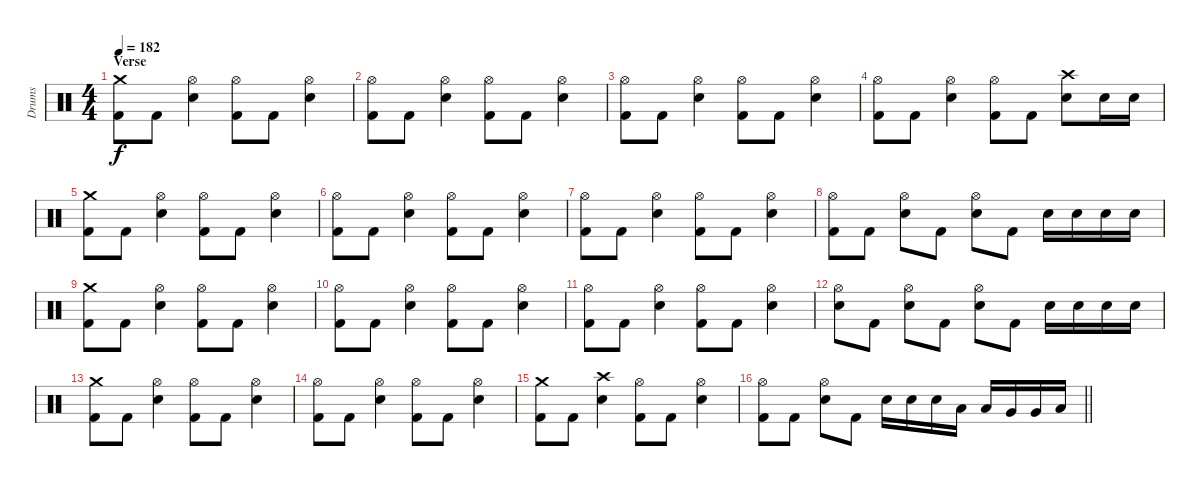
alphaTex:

\track ("Drums" "Drums") {instrument percussion}
\staff {score}
\articulation defaults
\ts (4 4)
\section ("" "Verse")
\tempo 182
\clef neutral
\ks c
("Crash medium (hit)" "Kick (hit) 2").8{dy f} "Kick (hit) 2".8 ("Hi-Hat (open)" "Electric Snare (hit)").4 ("Hi-Hat (open)" "Kick (hit) 2").8 "Kick (hit) 2".8 ("Hi-Hat (open)" "Electric Snare (hit)").4 |
("Hi-Hat (open)" "Kick (hit) 2").8 "Kick (hit) 2".8 ("Hi-Hat (open)" "Electric Snare (hit)").4 ("Hi-Hat (open)" "Kick (hit) 2").8 "Kick (hit) 2".8 ("Hi-Hat (open)" "Electric Snare (hit)").4 |
("Hi-Hat (open)" "Kick (hit) 2").8 "Kick (hit) 2".8 ("Hi-Hat (open)" "Electric Snare (hit)").4 ("Hi-Hat (open)" "Kick (hit) 2").8 "Kick (hit) 2".8 ("Hi-Hat (open)" "Electric Snare (hit)").4 |
("Hi-Hat (open)" "Kick (hit) 2").8 "Kick (hit) 2".8 ("Hi-Hat (open)" "Electric Snare (hit)").4 ("Hi-Hat (open)" "Kick (hit) 2").8 "Kick (hit) 2".8 ("Crash high (hit)" "Electric Snare (hit)").8 "Electric Snare (hit)".16 "Electric Snare (hit)".16 |
("Crash medium (hit)" "Kick (hit) 2").8 "Kick (hit) 2".8 ("Hi-Hat (open)" "Electric Snare (hit)").4 ("Hi-Hat (open)" "Kick (hit) 2").8 "Kick (hit) 2".8 ("Hi-Hat (open)" "Electric Snare (hit)").4 |
("Hi-Hat (open)" "Kick (hit) 2").8 "Kick (hit) 2".8 ("Hi-Hat (open)" "Electric Snare (hit)").4 ("Hi-Hat (open)" "Kick (hit) 2").8 "Kick (hit) 2".8 ("Hi-Hat (open)" "Electric Snare (hit)").4 |
("Hi-Hat (open)" "Kick (hit) 2").8 "Kick (hit) 2".8 ("Hi-Hat (open)" "Electric Snare (hit)").4 ("Hi-Hat (open)" "Kick (hit) 2").8 "Kick (hit) 2".8 ("Hi-Hat (open)" "Electric Snare (hit)").4 |
("Hi-Hat (open)" "Kick (hit) 2").8 "Kick (hit) 2".8 ("Hi-Hat (open)" "Electric Snare (hit)").8 "Kick (hit) 2".8 ("Hi-Hat (open)" "Electric Snare (hit)").8 "Kick (hit) 2".8 "Electric Snare (hit)".16 "Electric Snare (hit)".16 "Electric Snare (hit)".16 "Electric Snare (hit)".16 |
("Crash medium (hit)" "Kick (hit) 2").8 "Kick (hit) 2".8 ("Hi-Hat (open)" "Electric Snare (hit)").4 ("Hi-Hat (open)" "Kick (hit) 2").8 "Kick (hit) 2".8 ("Hi-Hat (open)" "Electric Snare (hit)").4 |
("Hi-Hat (open)" "Kick (hit) 2").8 "Kick (hit) 2".8 ("Hi-Hat (open)" "Electric Snare (hit)").4 ("Hi-Hat (open)" "Kick (hit) 2").8 "Kick (hit) 2".8 ("Hi-Hat (open)" "Electric Snare (hit)").4 |
("Hi-Hat (open)" "Kick (hit) 2").8 "Kick (hit) 2".8 ("Hi-Hat (open)" "Electric Snare (hit)").4 ("Hi-Hat (open)" "Kick (hit) 2").8 "Kick (hit) 2".8 ("Hi-Hat (open)" "Electric Snare (hit)").4 |
("Hi-Hat (open)" "Electric Snare (hit)").8 "Kick (hit) 2".8 ("Hi-Hat (open)" "Electric Snare (hit)").8 "Kick (hit) 2".8 ("Hi-Hat (open)" "Electric Snare (hit)").8 "Kick (hit) 2".8 "Electric Snare (hit)".16 "Electric Snare (hit)".16 "Electric Snare (hit)".16 "Electric Snare (hit)".16 |
("Crash medium (hit)" "Kick (hit) 2").8 "Kick (hit) 2".8 ("Hi-Hat (open)" "Electric Snare (hit)").4 ("Hi-Hat (open)" "Kick (hit) 2").8 "Kick (hit) 2".8 ("Hi-Hat (open)" "Electric Snare (hit)").4 |
("Hi-Hat (open)" "Kick (hit) 2").8 "Kick (hit) 2".8 ("Hi-Hat (open)" "Electric Snare (hit)").4 ("Hi-Hat (open)" "Kick (hit) 2").8 "Kick (hit) 2".8 ("Hi-Hat (open)" "Electric Snare (hit)").4 |
("Crash medium (hit)" "Kick (hit) 2").8 "Kick (hit) 2".8 ("Crash high (hit)" "Electric Snare (hit)").4 ("Hi-Hat (open)" "Kick (hit) 2").8 "Kick (hit) 2".8 ("Hi-Hat (open)" "Electric Snare (hit)").4 |
\barLineRight lightlight
("Hi-Hat (open)" "Kick (hit) 2").8 "Kick (hit) 2".8 ("Hi-Hat (open)" "Electric Snare (hit)").8 "Kick (hit) 2".8 "Electric Snare (hit)".16 "Electric Snare (hit)".16 "Electric Snare (hit)".16 "Low Tom (hit)".16 "Low Tom (hit)".16 "Very Low Tom (hit)".16 "Very Low Tom (hit)".16 "Low Floor Tom (hit)".16
